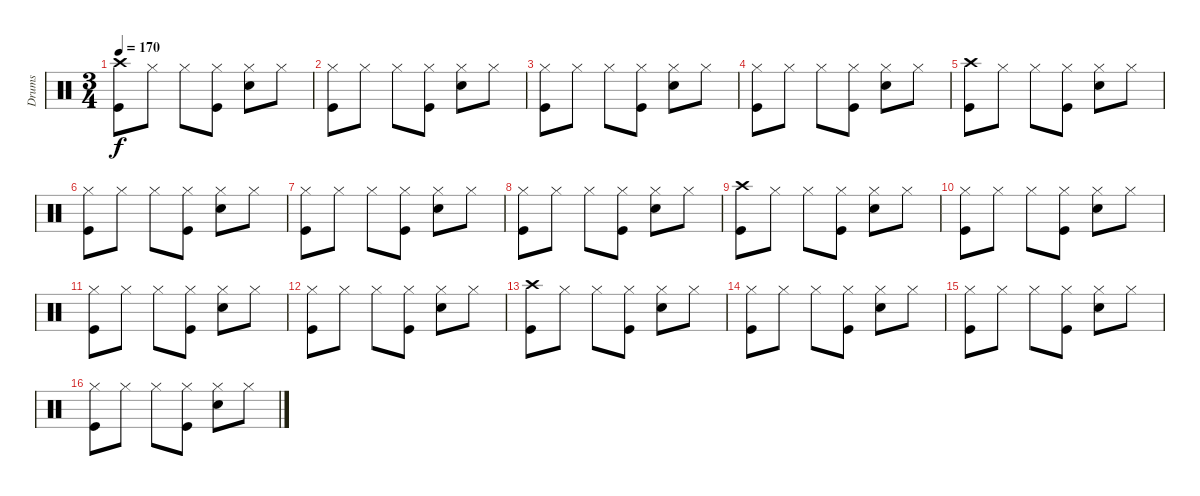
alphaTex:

\track ("Drums" "Drums") {instrument percussion}
\staff {score}
\articulation defaults
\ts (3 4)
\tempo 170
\clef neutral
\ks c
("Crash high (hit)" "Kick (hit)").8{dy f} "Hi-Hat (closed)".8 "Hi-Hat (closed)".8 ("Hi-Hat (closed)" "Kick (hit)").8 ("Hi-Hat (closed)" "Snare (hit) 2").8 "Hi-Hat (closed)".8 |
("Hi-Hat (closed)" "Kick (hit)").8 "Hi-Hat (closed)".8 "Hi-Hat (closed)".8 ("Hi-Hat (closed)" "Kick (hit)").8 ("Hi-Hat (closed)" "Snare (hit) 2").8 "Hi-Hat (closed)".8 |
("Hi-Hat (closed)" "Kick (hit)").8 "Hi-Hat (closed)".8 "Hi-Hat (closed)".8 ("Hi-Hat (closed)" "Kick (hit)").8 ("Hi-Hat (closed)" "Snare (hit) 2").8 "Hi-Hat (closed)".8 |
("Hi-Hat (closed)" "Kick (hit)").8 "Hi-Hat (closed)".8 "Hi-Hat (closed)".8 ("Hi-Hat (closed)" "Kick (hit)").8 ("Hi-Hat (closed)" "Snare (hit) 2").8 "Hi-Hat (closed)".8 |
("Crash high (hit)" "Kick (hit)").8 "Hi-Hat (closed)".8 "Hi-Hat (closed)".8 ("Hi-Hat (closed)" "Kick (hit)").8 ("Hi-Hat (closed)" "Snare (hit) 2").8 "Hi-Hat (closed)".8 |
("Hi-Hat (closed)" "Kick (hit)").8 "Hi-Hat (closed)".8 "Hi-Hat (closed)".8 ("Hi-Hat (closed)" "Kick (hit)").8 ("Hi-Hat (closed)" "Snare (hit) 2").8 "Hi-Hat (closed)".8 |
("Hi-Hat (closed)" "Kick (hit)").8 "Hi-Hat (closed)".8 "Hi-Hat (closed)".8 ("Hi-Hat (closed)" "Kick (hit)").8 ("Hi-Hat (closed)" "Snare (hit) 2").8 "Hi-Hat (closed)".8 |
("Hi-Hat (closed)" "Kick (hit)").8 "Hi-Hat (closed)".8 "Hi-Hat (closed)".8 ("Hi-Hat (closed)" "Kick (hit)").8 ("Hi-Hat (closed)" "Snare (hit) 2").8 "Hi-Hat (closed)".8 |
("Crash high (hit)" "Kick (hit)").8 "Hi-Hat (closed)".8 "Hi-Hat (closed)".8 ("Hi-Hat (closed)" "Kick (hit)").8 ("Hi-Hat (closed)" "Snare (hit) 2").8 "Hi-Hat (closed)".8 |
("Hi-Hat (closed)" "Kick (hit)").8 "Hi-Hat (closed)".8 "Hi-Hat (closed)".8 ("Hi-Hat (closed)" "Kick (hit)").8 ("Hi-Hat (closed)" "Snare (hit) 2").8 "Hi-Hat (closed)".8 |
("Hi-Hat (closed)" "Kick (hit)").8 "Hi-Hat (closed)".8 "Hi-Hat (closed)".8 ("Hi-Hat (closed)" "Kick (hit)").8 ("Hi-Hat (closed)" "Snare (hit) 2").8 "Hi-Hat (closed)".8 |
("Hi-Hat (closed)" "Kick (hit)").8 "Hi-Hat (closed)".8 "Hi-Hat (closed)".8 ("Hi-Hat (closed)" "Kick (hit)").8 ("Hi-Hat (closed)" "Snare (hit) 2").8 "Hi-Hat (closed)".8 |
("Crash high (hit)" "Kick (hit)").8 "Hi-Hat (closed)".8 "Hi-Hat (closed)".8 ("Hi-Hat (closed)" "Kick (hit)").8 ("Hi-Hat (closed)" "Snare (hit) 2").8 "Hi-Hat (closed)".8 |
("Hi-Hat (closed)" "Kick (hit)").8 "Hi-Hat (closed)".8 "Hi-Hat (closed)".8 ("Hi-Hat (closed)" "Kick (hit)").8 ("Hi-Hat (closed)" "Snare (hit) 2").8 "Hi-Hat (closed)".8 |
("Hi-Hat (closed)" "Kick (hit)").8 "Hi-Hat (closed)".8 "Hi-Hat (closed)".8 ("Hi-Hat (closed)" "Kick (hit)").8 ("Hi-Hat (closed)" "Snare (hit) 2").8 "Hi-Hat (closed)".8 |
("Hi-Hat (closed)" "Kick (hit)").8 "Hi-Hat (closed)".8 "Hi-Hat (closed)".8 ("Hi-Hat (closed)" "Kick (hit)").8 ("Hi-Hat (closed)" "Snare (hit) 2").8 "Hi-Hat (closed)".8
